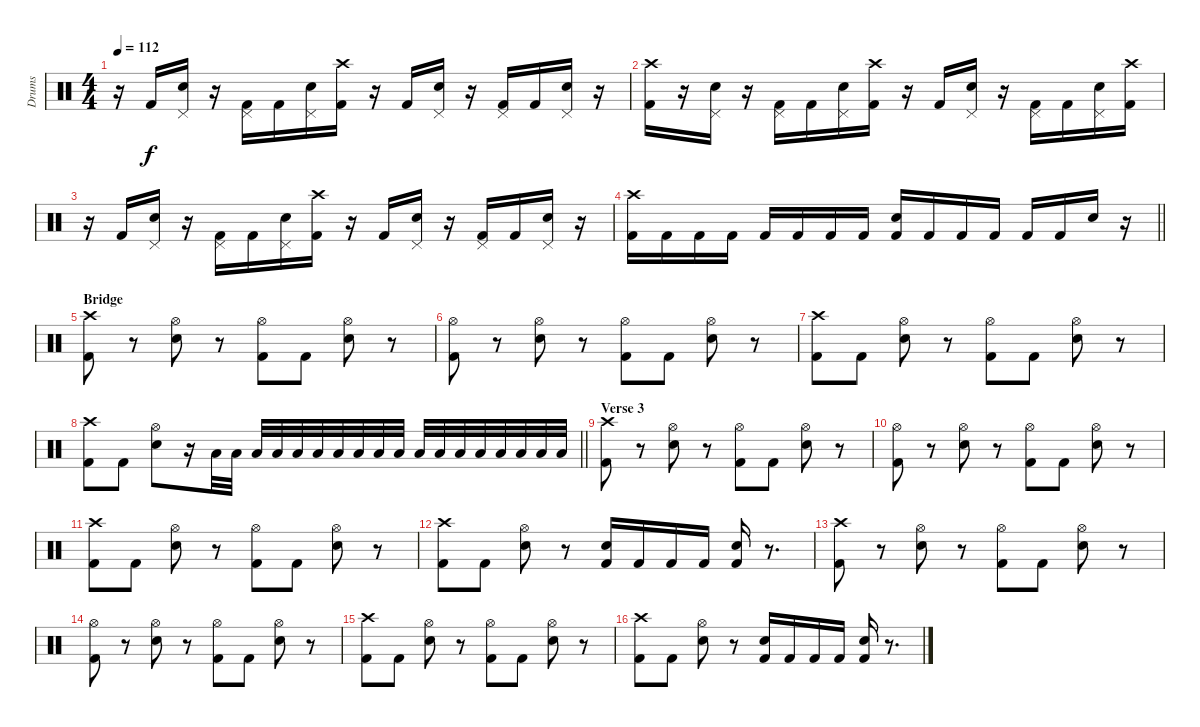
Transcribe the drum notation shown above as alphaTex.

\track ("Drums" "Drums") {instrument percussion}
\staff {score}
\articulation defaults
\ts (4 4)
\tempo 112
\clef neutral
\ks c
r.16{dy f} "Kick (hit) 2".16 ("Pedal Hi-Hat (hit)" "Snare (hit) 2").16 r.16 ("Pedal Hi-Hat (hit)" "Kick (hit) 2").16 "Kick (hit) 2".16 ("Pedal Hi-Hat (hit)" "Snare (hit) 2").16 ("Crash high (hit)" "Kick (hit) 2").16 r.16 "Kick (hit) 2".16 ("Pedal Hi-Hat (hit)" "Snare (hit) 2").16 r.16 ("Pedal Hi-Hat (hit)" "Kick (hit) 2").16 "Kick (hit) 2".16 ("Pedal Hi-Hat (hit)" "Snare (hit) 2").16 r.16 |
("Crash high (hit)" "Kick (hit) 2").16 r.16 ("Pedal Hi-Hat (hit)" "Snare (hit) 2").16 r.16 ("Pedal Hi-Hat (hit)" "Kick (hit) 2").16 "Kick (hit) 2".16 ("Pedal Hi-Hat (hit)" "Snare (hit) 2").16 ("Crash high (hit)" "Kick (hit) 2").16 r.16 "Kick (hit) 2".16 ("Pedal Hi-Hat (hit)" "Snare (hit) 2").16 r.16 ("Pedal Hi-Hat (hit)" "Kick (hit) 2").16 "Kick (hit) 2".16 ("Pedal Hi-Hat (hit)" "Snare (hit) 2").16 ("Crash high (hit)" "Kick (hit) 2").16 |
r.16 "Kick (hit) 2".16 ("Pedal Hi-Hat (hit)" "Snare (hit) 2").16 r.16 ("Pedal Hi-Hat (hit)" "Kick (hit) 2").16 "Kick (hit) 2".16 ("Pedal Hi-Hat (hit)" "Snare (hit) 2").16 ("Crash high (hit)" "Kick (hit) 2").16 r.16 "Kick (hit) 2".16 ("Pedal Hi-Hat (hit)" "Snare (hit) 2").16 r.16 ("Pedal Hi-Hat (hit)" "Kick (hit) 2").16 "Kick (hit) 2".16 ("Pedal Hi-Hat (hit)" "Snare (hit) 2").16 r.16 |
\barLineRight lightlight
("Crash high (hit)" "Kick (hit) 2").16 "Kick (hit) 2".16 "Kick (hit) 2".16 "Kick (hit) 2".16 "Kick (hit) 2".16 "Kick (hit) 2".16 "Kick (hit) 2".16 "Kick (hit) 2".16 ("Snare (hit) 2" "Kick (hit) 2").16 "Kick (hit) 2".16 "Kick (hit) 2".16 "Kick (hit) 2".16 "Kick (hit) 2".16 "Kick (hit) 2".16 "Snare (hit) 2".16 r.16 |
\section ("" "Bridge")
("Crash high (hit)" "Kick (hit) 2").8 r.8 ("Hi-Hat (open)" "Snare (hit) 2").8 r.8 ("Hi-Hat (open)" "Kick (hit) 2").8 "Kick (hit) 2".8 ("Hi-Hat (open)" "Snare (hit) 2").8 r.8 |
("Hi-Hat (open)" "Kick (hit) 2").8 r.8 ("Hi-Hat (open)" "Snare (hit) 2").8 r.8 ("Hi-Hat (open)" "Kick (hit) 2").8 "Kick (hit) 2".8 ("Hi-Hat (open)" "Snare (hit) 2").8 r.8 |
("Crash high (hit)" "Kick (hit) 2").8 "Kick (hit) 2".8 ("Hi-Hat (open)" "Snare (hit) 2").8 r.8 ("Hi-Hat (open)" "Kick (hit) 2").8 "Kick (hit) 2".8 ("Hi-Hat (open)" "Snare (hit) 2").8 r.8 |
\barLineRight lightlight
("Crash high (hit)" "Kick (hit) 2").8 "Kick (hit) 2".8 ("Hi-Hat (open)" "Snare (hit) 2").8 r.16 "Low Tom (hit)".32 "Low Tom (hit)".32 "Low Tom (hit)".32 "Low Tom (hit)".32 "Low Tom (hit)".32 "Low Tom (hit)".32 "Low Tom (hit)".32 "Low Tom (hit)".32 "Low Tom (hit)".32 "Low Tom (hit)".32 "Low Tom (hit)".32 "Low Tom (hit)".32 "Low Tom (hit)".32 "Low Tom (hit)".32 "Low Tom (hit)".32 "Low Tom (hit)".32 "Low Tom (hit)".32 "Low Tom (hit)".32 |
\section ("" "Verse 3")
("Crash high (hit)" "Kick (hit) 2").8 r.8 ("Hi-Hat (open)" "Snare (hit) 2").8 r.8 ("Hi-Hat (open)" "Kick (hit) 2").8 "Kick (hit) 2".8 ("Hi-Hat (open)" "Snare (hit) 2").8 r.8 |
("Hi-Hat (open)" "Kick (hit) 2").8 r.8 ("Hi-Hat (open)" "Snare (hit) 2").8 r.8 ("Hi-Hat (open)" "Kick (hit) 2").8 "Kick (hit) 2".8 ("Hi-Hat (open)" "Snare (hit) 2").8 r.8 |
("Crash high (hit)" "Kick (hit) 2").8 "Kick (hit) 2".8 ("Hi-Hat (open)" "Snare (hit) 2").8 r.8 ("Hi-Hat (open)" "Kick (hit) 2").8 "Kick (hit) 2".8 ("Hi-Hat (open)" "Snare (hit) 2").8 r.8 |
("Crash high (hit)" "Kick (hit) 2").8 "Kick (hit) 2".8 ("Hi-Hat (open)" "Snare (hit) 2").8 r.8 ("Snare (hit) 2" "Kick (hit) 2").16 "Kick (hit) 2".16 "Kick (hit) 2".16 "Kick (hit) 2".16 ("Snare (hit) 2" "Kick (hit) 2").16 r.8{d} |
("Crash high (hit)" "Kick (hit) 2").8 r.8 ("Hi-Hat (open)" "Snare (hit) 2").8 r.8 ("Hi-Hat (open)" "Kick (hit) 2").8 "Kick (hit) 2".8 ("Hi-Hat (open)" "Snare (hit) 2").8 r.8 |
("Hi-Hat (open)" "Kick (hit) 2").8 r.8 ("Hi-Hat (open)" "Snare (hit) 2").8 r.8 ("Hi-Hat (open)" "Kick (hit) 2").8 "Kick (hit) 2".8 ("Hi-Hat (open)" "Snare (hit) 2").8 r.8 |
("Crash high (hit)" "Kick (hit) 2").8 "Kick (hit) 2".8 ("Hi-Hat (open)" "Snare (hit) 2").8 r.8 ("Hi-Hat (open)" "Kick (hit) 2").8 "Kick (hit) 2".8 ("Hi-Hat (open)" "Snare (hit) 2").8 r.8 |
("Crash high (hit)" "Kick (hit) 2").8 "Kick (hit) 2".8 ("Hi-Hat (open)" "Snare (hit) 2").8 r.8 ("Snare (hit) 2" "Kick (hit) 2").16 "Kick (hit) 2".16 "Kick (hit) 2".16 "Kick (hit) 2".16 ("Snare (hit) 2" "Kick (hit) 2").16 r.8{d}
